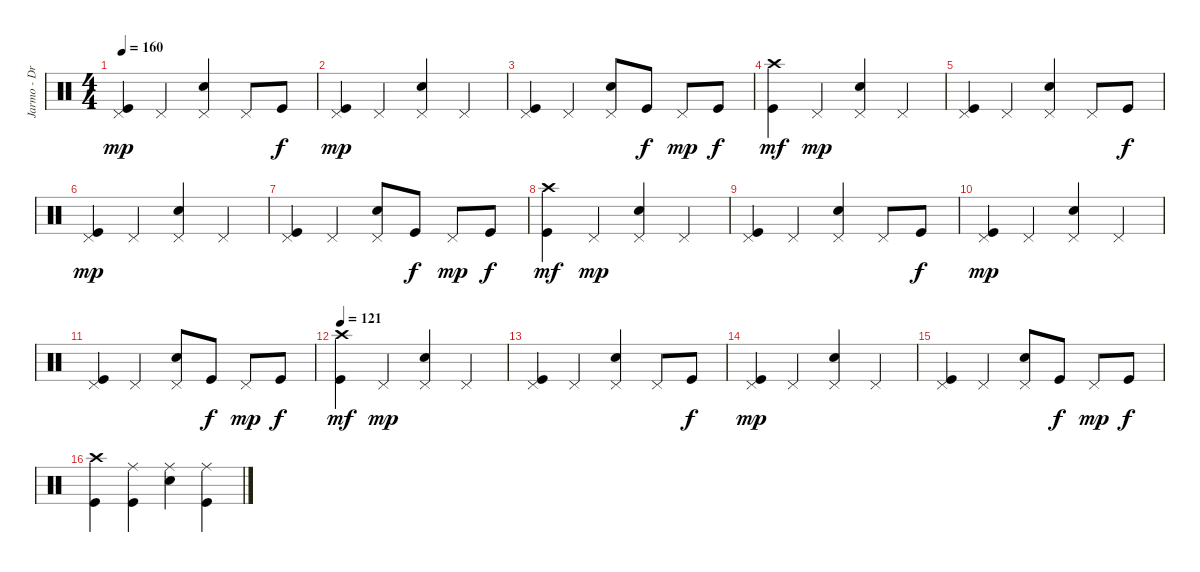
\track ("Jarmo - Drums" "Jarmo - Dr") {instrument percussion}
\staff {score}
\articulation defaults
\ts (4 4)
\tempo 160
\clef neutral
\ks c
("Kick (hit)" "Pedal Hi-Hat (hit)").4{dy mp} "Pedal Hi-Hat (hit)".4 ("Electric Snare (hit)" "Pedal Hi-Hat (hit)").4 "Pedal Hi-Hat (hit)".8 "Kick (hit)".8{dy f} |
("Kick (hit)" "Pedal Hi-Hat (hit)").4{dy mp} "Pedal Hi-Hat (hit)".4 ("Electric Snare (hit)" "Pedal Hi-Hat (hit)").4 "Pedal Hi-Hat (hit)".4 |
("Kick (hit)" "Pedal Hi-Hat (hit)").4 "Pedal Hi-Hat (hit)".4 ("Electric Snare (hit)" "Pedal Hi-Hat (hit)").8 "Kick (hit)".8{dy f} "Pedal Hi-Hat (hit)".8{dy mp} "Kick (hit)".8{dy f} |
("Kick (hit)" "Crash high (hit)").4{dy mf} "Pedal Hi-Hat (hit)".4{dy mp} ("Electric Snare (hit)" "Pedal Hi-Hat (hit)").4 "Pedal Hi-Hat (hit)".4 |
("Kick (hit)" "Pedal Hi-Hat (hit)").4 "Pedal Hi-Hat (hit)".4 ("Electric Snare (hit)" "Pedal Hi-Hat (hit)").4 "Pedal Hi-Hat (hit)".8 "Kick (hit)".8{dy f} |
("Kick (hit)" "Pedal Hi-Hat (hit)").4{dy mp} "Pedal Hi-Hat (hit)".4 ("Electric Snare (hit)" "Pedal Hi-Hat (hit)").4 "Pedal Hi-Hat (hit)".4 |
("Kick (hit)" "Pedal Hi-Hat (hit)").4 "Pedal Hi-Hat (hit)".4 ("Electric Snare (hit)" "Pedal Hi-Hat (hit)").8 "Kick (hit)".8{dy f} "Pedal Hi-Hat (hit)".8{dy mp} "Kick (hit)".8{dy f} |
("Kick (hit)" "Crash high (hit)").4{dy mf} "Pedal Hi-Hat (hit)".4{dy mp} ("Electric Snare (hit)" "Pedal Hi-Hat (hit)").4 "Pedal Hi-Hat (hit)".4 |
("Kick (hit)" "Pedal Hi-Hat (hit)").4 "Pedal Hi-Hat (hit)".4 ("Electric Snare (hit)" "Pedal Hi-Hat (hit)").4 "Pedal Hi-Hat (hit)".8 "Kick (hit)".8{dy f} |
("Kick (hit)" "Pedal Hi-Hat (hit)").4{dy mp} "Pedal Hi-Hat (hit)".4 ("Electric Snare (hit)" "Pedal Hi-Hat (hit)").4 "Pedal Hi-Hat (hit)".4 |
("Kick (hit)" "Pedal Hi-Hat (hit)").4 "Pedal Hi-Hat (hit)".4 ("Electric Snare (hit)" "Pedal Hi-Hat (hit)").8 "Kick (hit)".8{dy f} "Pedal Hi-Hat (hit)".8{dy mp} "Kick (hit)".8{dy f} |
\tempo 121
("Kick (hit)" "Crash high (hit)").4{dy mf} "Pedal Hi-Hat (hit)".4{dy mp} ("Electric Snare (hit)" "Pedal Hi-Hat (hit)").4 "Pedal Hi-Hat (hit)".4 |
("Kick (hit)" "Pedal Hi-Hat (hit)").4 "Pedal Hi-Hat (hit)".4 ("Electric Snare (hit)" "Pedal Hi-Hat (hit)").4 "Pedal Hi-Hat (hit)".8 "Kick (hit)".8{dy f} |
("Kick (hit)" "Pedal Hi-Hat (hit)").4{dy mp} "Pedal Hi-Hat (hit)".4 ("Electric Snare (hit)" "Pedal Hi-Hat (hit)").4 "Pedal Hi-Hat (hit)".4 |
("Kick (hit)" "Pedal Hi-Hat (hit)").4 "Pedal Hi-Hat (hit)".4 ("Electric Snare (hit)" "Pedal Hi-Hat (hit)").8 "Kick (hit)".8{dy f} "Pedal Hi-Hat (hit)".8{dy mp} "Kick (hit)".8{dy f} |
("Kick (hit)" "Crash high (hit)").4 ("Kick (hit)" "Ride (middle)").4 ("Electric Snare (hit)" "Ride (middle)").4 ("Kick (hit)" "Ride (middle)").4
